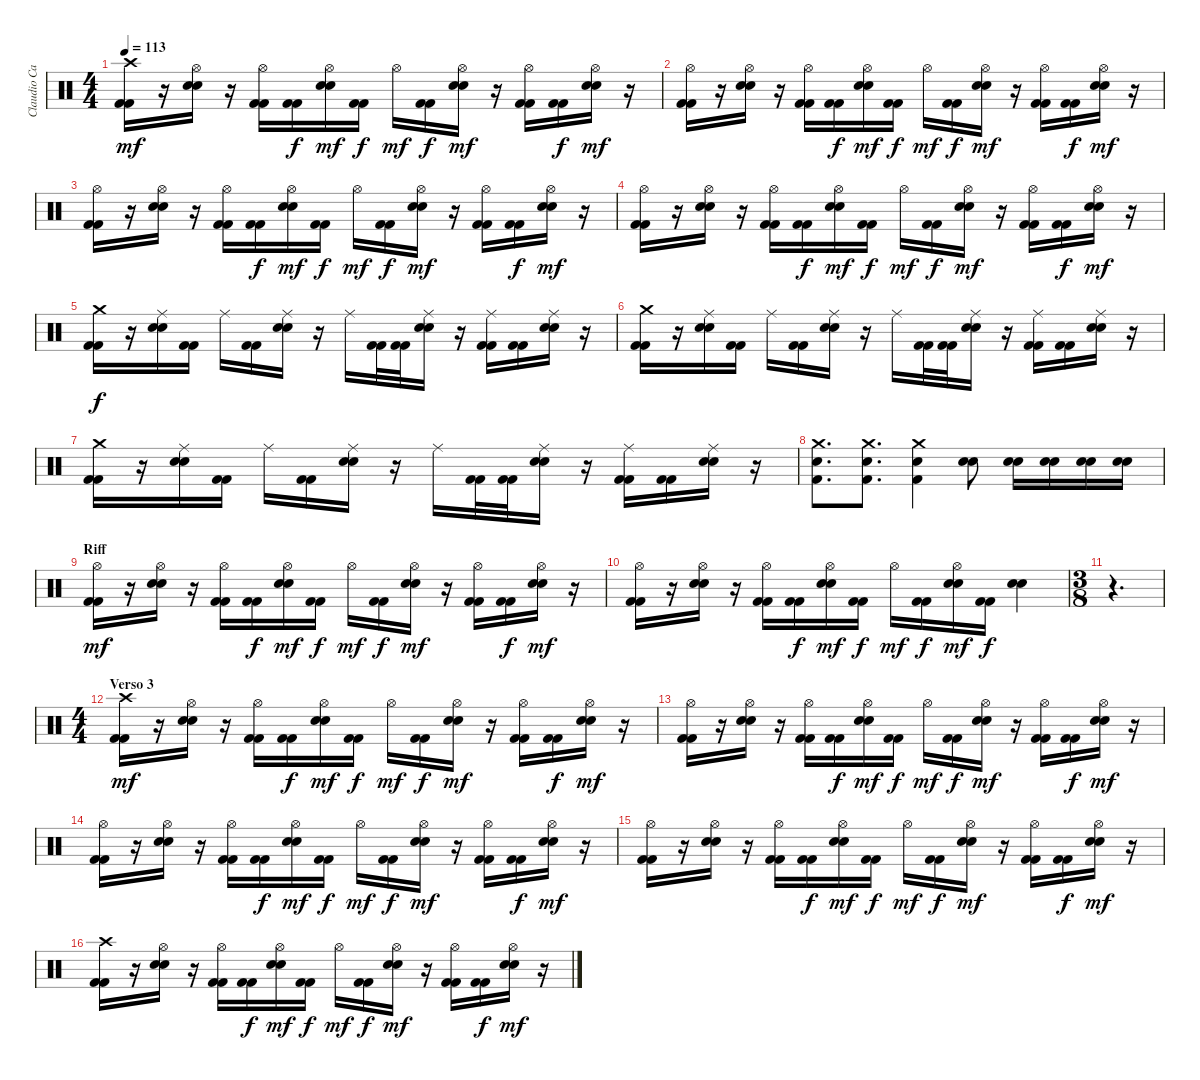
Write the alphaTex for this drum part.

\track ("Claudio Cardaci (bateria)" "Claudio Ca") {instrument percussion}
\staff {score}
\articulation defaults
\ts (4 4)
\tempo 113
\clef neutral
\ks c
("Crash high (hit)" "Kick (hit) 2" "Kick (hit) 2").16{dy mf} r.16 ("Hi-Hat (open)" "Snare (hit) 2" "Snare (hit) 2").16 r.16 ("Hi-Hat (open)" "Kick (hit) 2" "Kick (hit) 2").16 ("Kick (hit) 2" "Kick (hit) 2").16{dy f} ("Hi-Hat (open)" "Snare (hit) 2" "Snare (hit) 2").16{dy mf} ("Kick (hit) 2" "Kick (hit) 2").16{dy f} "Hi-Hat (open)".16{dy mf} ("Kick (hit) 2" "Kick (hit) 2").16{dy f} ("Hi-Hat (open)" "Snare (hit) 2" "Snare (hit) 2").16{dy mf} r.16 ("Hi-Hat (open)" "Kick (hit) 2" "Kick (hit) 2").16 ("Kick (hit) 2" "Kick (hit) 2").16{dy f} ("Hi-Hat (open)" "Snare (hit) 2" "Snare (hit) 2").16{dy mf} r.16 |
("Hi-Hat (open)" "Kick (hit) 2" "Kick (hit) 2").16 r.16 ("Hi-Hat (open)" "Snare (hit) 2" "Snare (hit) 2").16 r.16 ("Hi-Hat (open)" "Kick (hit) 2" "Kick (hit) 2").16 ("Kick (hit) 2" "Kick (hit) 2").16{dy f} ("Hi-Hat (open)" "Snare (hit) 2" "Snare (hit) 2").16{dy mf} ("Kick (hit) 2" "Kick (hit) 2").16{dy f} "Hi-Hat (open)".16{dy mf} ("Kick (hit) 2" "Kick (hit) 2").16{dy f} ("Hi-Hat (open)" "Snare (hit) 2" "Snare (hit) 2").16{dy mf} r.16 ("Hi-Hat (open)" "Kick (hit) 2" "Kick (hit) 2").16 ("Kick (hit) 2" "Kick (hit) 2").16{dy f} ("Hi-Hat (open)" "Snare (hit) 2" "Snare (hit) 2").16{dy mf} r.16 |
("Hi-Hat (open)" "Kick (hit) 2" "Kick (hit) 2").16 r.16 ("Hi-Hat (open)" "Snare (hit) 2" "Snare (hit) 2").16 r.16 ("Hi-Hat (open)" "Kick (hit) 2" "Kick (hit) 2").16 ("Kick (hit) 2" "Kick (hit) 2").16{dy f} ("Hi-Hat (open)" "Snare (hit) 2" "Snare (hit) 2").16{dy mf} ("Kick (hit) 2" "Kick (hit) 2").16{dy f} "Hi-Hat (open)".16{dy mf} ("Kick (hit) 2" "Kick (hit) 2").16{dy f} ("Hi-Hat (open)" "Snare (hit) 2" "Snare (hit) 2").16{dy mf} r.16 ("Hi-Hat (open)" "Kick (hit) 2" "Kick (hit) 2").16 ("Kick (hit) 2" "Kick (hit) 2").16{dy f} ("Hi-Hat (open)" "Snare (hit) 2" "Snare (hit) 2").16{dy mf} r.16 |
("Hi-Hat (open)" "Kick (hit) 2" "Kick (hit) 2").16 r.16 ("Hi-Hat (open)" "Snare (hit) 2" "Snare (hit) 2").16 r.16 ("Hi-Hat (open)" "Kick (hit) 2" "Kick (hit) 2").16 ("Kick (hit) 2" "Kick (hit) 2").16{dy f} ("Hi-Hat (open)" "Snare (hit) 2" "Snare (hit) 2").16{dy mf} ("Kick (hit) 2" "Kick (hit) 2").16{dy f} "Hi-Hat (open)".16{dy mf} ("Kick (hit) 2" "Kick (hit) 2").16{dy f} ("Hi-Hat (open)" "Snare (hit) 2" "Snare (hit) 2").16{dy mf} r.16 ("Hi-Hat (open)" "Kick (hit) 2" "Kick (hit) 2").16 ("Kick (hit) 2" "Kick (hit) 2").16{dy f} ("Hi-Hat (open)" "Snare (hit) 2" "Snare (hit) 2").16{dy mf} r.16 |
("Crash medium (hit)" "Kick (hit) 2" "Kick (hit) 2").16{dy f} r.16 ("Ride (middle)" "Snare (hit) 2" "Snare (hit) 2").16 ("Kick (hit) 2" "Kick (hit) 2").16 "Ride (middle)".16 ("Kick (hit) 2" "Kick (hit) 2").16 ("Ride (middle)" "Snare (hit) 2" "Snare (hit) 2").16 r.16 "Ride (middle)".16 ("Kick (hit) 2" "Kick (hit) 2").32 ("Kick (hit) 2" "Kick (hit) 2").32 ("Ride (middle)" "Snare (hit) 2" "Snare (hit) 2").16 r.16 ("Ride (middle)" "Kick (hit) 2" "Kick (hit) 2").16 ("Kick (hit) 2" "Kick (hit) 2").16 ("Ride (middle)" "Snare (hit) 2" "Snare (hit) 2").16 r.16 |
("Crash medium (hit)" "Kick (hit) 2" "Kick (hit) 2").16 r.16 ("Ride (middle)" "Snare (hit) 2" "Snare (hit) 2").16 ("Kick (hit) 2" "Kick (hit) 2").16 "Ride (middle)".16 ("Kick (hit) 2" "Kick (hit) 2").16 ("Ride (middle)" "Snare (hit) 2" "Snare (hit) 2").16 r.16 "Ride (middle)".16 ("Kick (hit) 2" "Kick (hit) 2").32 ("Kick (hit) 2" "Kick (hit) 2").32 ("Ride (middle)" "Snare (hit) 2" "Snare (hit) 2").16 r.16 ("Ride (middle)" "Kick (hit) 2" "Kick (hit) 2").16 ("Kick (hit) 2" "Kick (hit) 2").16 ("Ride (middle)" "Snare (hit) 2" "Snare (hit) 2").16 r.16 |
("Crash medium (hit)" "Kick (hit) 2" "Kick (hit) 2").16 r.16 ("Ride (middle)" "Snare (hit) 2" "Snare (hit) 2").16 ("Kick (hit) 2" "Kick (hit) 2").16 "Ride (middle)".16 ("Kick (hit) 2" "Kick (hit) 2").16 ("Ride (middle)" "Snare (hit) 2" "Snare (hit) 2").16 r.16 "Ride (middle)".16 ("Kick (hit) 2" "Kick (hit) 2").32 ("Kick (hit) 2" "Kick (hit) 2").32 ("Ride (middle)" "Snare (hit) 2" "Snare (hit) 2").16 r.16 ("Ride (middle)" "Kick (hit) 2" "Kick (hit) 2").16 ("Kick (hit) 2" "Kick (hit) 2").16 ("Ride (middle)" "Snare (hit) 2" "Snare (hit) 2").16 r.16 |
("Crash medium (hit)" "Snare (hit) 2" "Kick (hit) 2").8{d} ("Crash medium (hit)" "Snare (hit) 2" "Kick (hit) 2").8{d} ("Crash medium (hit)" "Snare (hit) 2" "Kick (hit) 2").4 ("Electric Snare (hit)" "Electric Snare (hit)").8 ("Snare (hit) 2" "Snare (hit) 2").16 ("Snare (hit) 2" "Snare (hit) 2").16 ("Snare (hit) 2" "Snare (hit) 2").16 ("Snare (hit) 2" "Snare (hit) 2").16 |
\section ("" "Riff")
("Hi-Hat (open)" "Kick (hit) 2" "Kick (hit) 2").16{dy mf} r.16 ("Hi-Hat (open)" "Snare (hit) 2" "Snare (hit) 2").16 r.16 ("Hi-Hat (open)" "Kick (hit) 2" "Kick (hit) 2").16 ("Kick (hit) 2" "Kick (hit) 2").16{dy f} ("Hi-Hat (open)" "Snare (hit) 2" "Snare (hit) 2").16{dy mf} ("Kick (hit) 2" "Kick (hit) 2").16{dy f} "Hi-Hat (open)".16{dy mf} ("Kick (hit) 2" "Kick (hit) 2").16{dy f} ("Hi-Hat (open)" "Snare (hit) 2" "Snare (hit) 2").16{dy mf} r.16 ("Hi-Hat (open)" "Kick (hit) 2" "Kick (hit) 2").16 ("Kick (hit) 2" "Kick (hit) 2").16{dy f} ("Hi-Hat (open)" "Snare (hit) 2" "Snare (hit) 2").16{dy mf} r.16 |
("Hi-Hat (open)" "Kick (hit) 2" "Kick (hit) 2").16 r.16 ("Hi-Hat (open)" "Snare (hit) 2" "Snare (hit) 2").16 r.16 ("Hi-Hat (open)" "Kick (hit) 2" "Kick (hit) 2").16 ("Kick (hit) 2" "Kick (hit) 2").16{dy f} ("Hi-Hat (open)" "Snare (hit) 2" "Snare (hit) 2").16{dy mf} ("Kick (hit) 2" "Kick (hit) 2").16{dy f} "Hi-Hat (open)".16{dy mf} ("Kick (hit) 2" "Kick (hit) 2").16{dy f} ("Hi-Hat (open)" "Snare (hit) 2" "Snare (hit) 2").16{dy mf} ("Kick (hit) 2" "Kick (hit) 2").16{dy f} ("Snare (hit) 2" "Snare (hit) 2").4 |
\ts (3 8)
r.4{d} |
\ts (4 4)
\section ("" "Verso 3")
("Crash high (hit)" "Kick (hit) 2" "Kick (hit) 2").16{dy mf} r.16 ("Hi-Hat (open)" "Snare (hit) 2" "Snare (hit) 2").16 r.16 ("Hi-Hat (open)" "Kick (hit) 2" "Kick (hit) 2").16 ("Kick (hit) 2" "Kick (hit) 2").16{dy f} ("Hi-Hat (open)" "Snare (hit) 2" "Snare (hit) 2").16{dy mf} ("Kick (hit) 2" "Kick (hit) 2").16{dy f} "Hi-Hat (open)".16{dy mf} ("Kick (hit) 2" "Kick (hit) 2").16{dy f} ("Hi-Hat (open)" "Snare (hit) 2" "Snare (hit) 2").16{dy mf} r.16 ("Hi-Hat (open)" "Kick (hit) 2" "Kick (hit) 2").16 ("Kick (hit) 2" "Kick (hit) 2").16{dy f} ("Hi-Hat (open)" "Snare (hit) 2" "Snare (hit) 2").16{dy mf} r.16 |
("Hi-Hat (open)" "Kick (hit) 2" "Kick (hit) 2").16 r.16 ("Hi-Hat (open)" "Snare (hit) 2" "Snare (hit) 2").16 r.16 ("Hi-Hat (open)" "Kick (hit) 2" "Kick (hit) 2").16 ("Kick (hit) 2" "Kick (hit) 2").16{dy f} ("Hi-Hat (open)" "Snare (hit) 2" "Snare (hit) 2").16{dy mf} ("Kick (hit) 2" "Kick (hit) 2").16{dy f} "Hi-Hat (open)".16{dy mf} ("Kick (hit) 2" "Kick (hit) 2").16{dy f} ("Hi-Hat (open)" "Snare (hit) 2" "Snare (hit) 2").16{dy mf} r.16 ("Hi-Hat (open)" "Kick (hit) 2" "Kick (hit) 2").16 ("Kick (hit) 2" "Kick (hit) 2").16{dy f} ("Hi-Hat (open)" "Snare (hit) 2" "Snare (hit) 2").16{dy mf} r.16 |
("Hi-Hat (open)" "Kick (hit) 2" "Kick (hit) 2").16 r.16 ("Hi-Hat (open)" "Snare (hit) 2" "Snare (hit) 2").16 r.16 ("Hi-Hat (open)" "Kick (hit) 2" "Kick (hit) 2").16 ("Kick (hit) 2" "Kick (hit) 2").16{dy f} ("Hi-Hat (open)" "Snare (hit) 2" "Snare (hit) 2").16{dy mf} ("Kick (hit) 2" "Kick (hit) 2").16{dy f} "Hi-Hat (open)".16{dy mf} ("Kick (hit) 2" "Kick (hit) 2").16{dy f} ("Hi-Hat (open)" "Snare (hit) 2" "Snare (hit) 2").16{dy mf} r.16 ("Hi-Hat (open)" "Kick (hit) 2" "Kick (hit) 2").16 ("Kick (hit) 2" "Kick (hit) 2").16{dy f} ("Hi-Hat (open)" "Snare (hit) 2" "Snare (hit) 2").16{dy mf} r.16 |
("Hi-Hat (open)" "Kick (hit) 2" "Kick (hit) 2").16 r.16 ("Hi-Hat (open)" "Snare (hit) 2" "Snare (hit) 2").16 r.16 ("Hi-Hat (open)" "Kick (hit) 2" "Kick (hit) 2").16 ("Kick (hit) 2" "Kick (hit) 2").16{dy f} ("Hi-Hat (open)" "Snare (hit) 2" "Snare (hit) 2").16{dy mf} ("Kick (hit) 2" "Kick (hit) 2").16{dy f} "Hi-Hat (open)".16{dy mf} ("Kick (hit) 2" "Kick (hit) 2").16{dy f} ("Hi-Hat (open)" "Snare (hit) 2" "Snare (hit) 2").16{dy mf} r.16 ("Hi-Hat (open)" "Kick (hit) 2" "Kick (hit) 2").16 ("Kick (hit) 2" "Kick (hit) 2").16{dy f} ("Hi-Hat (open)" "Snare (hit) 2" "Snare (hit) 2").16{dy mf} r.16 |
("Crash high (hit)" "Kick (hit) 2" "Kick (hit) 2").16 r.16 ("Hi-Hat (open)" "Snare (hit) 2" "Snare (hit) 2").16 r.16 ("Hi-Hat (open)" "Kick (hit) 2" "Kick (hit) 2").16 ("Kick (hit) 2" "Kick (hit) 2").16{dy f} ("Hi-Hat (open)" "Snare (hit) 2" "Snare (hit) 2").16{dy mf} ("Kick (hit) 2" "Kick (hit) 2").16{dy f} "Hi-Hat (open)".16{dy mf} ("Kick (hit) 2" "Kick (hit) 2").16{dy f} ("Hi-Hat (open)" "Snare (hit) 2" "Snare (hit) 2").16{dy mf} r.16 ("Hi-Hat (open)" "Kick (hit) 2" "Kick (hit) 2").16 ("Kick (hit) 2" "Kick (hit) 2").16{dy f} ("Hi-Hat (open)" "Snare (hit) 2" "Snare (hit) 2").16{dy mf} r.16
